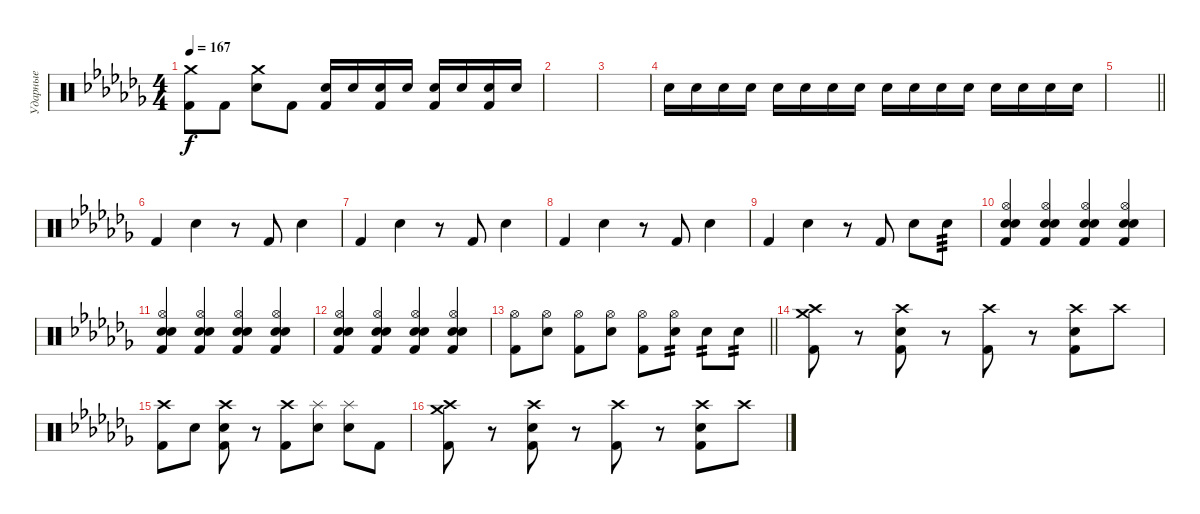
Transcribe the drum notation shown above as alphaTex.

\track ("Ударные" "Ударные") {instrument percussion}
\staff {score}
\articulation defaults
\ts (4 4)
\tempo 167
\clef neutral
\ks abminor
("Crash medium (hit)" "Kick (hit) 2").8{dy f} "Kick (hit) 2".8 ("Crash medium (hit)" "Electric Snare (hit)").8 "Kick (hit) 2".8 ("Electric Snare (hit)" "Kick (hit) 2").16 "Electric Snare (hit)".16 ("Electric Snare (hit)" "Kick (hit) 2").16 "Electric Snare (hit)".16 ("Electric Snare (hit)" "Kick (hit) 2").16 "Electric Snare (hit)".16 ("Electric Snare (hit)" "Kick (hit) 2").16 "Electric Snare (hit)".16 |
|
|
"Electric Snare (hit)".16 "Electric Snare (hit)".16 "Electric Snare (hit)".16 "Electric Snare (hit)".16 "Electric Snare (hit)".16 "Electric Snare (hit)".16 "Electric Snare (hit)".16 "Electric Snare (hit)".16 "Electric Snare (hit)".16 "Electric Snare (hit)".16 "Electric Snare (hit)".16 "Electric Snare (hit)".16 "Electric Snare (hit)".16 "Electric Snare (hit)".16 "Electric Snare (hit)".16 "Electric Snare (hit)".16 |
\barLineRight lightlight
|
"Kick (hit) 2".4 "Electric Snare (hit)".4 r.8 "Kick (hit) 2".8 "Electric Snare (hit)".4 |
"Kick (hit) 2".4 "Electric Snare (hit)".4 r.8 "Kick (hit) 2".8 "Electric Snare (hit)".4 |
"Kick (hit) 2".4 "Electric Snare (hit)".4 r.8 "Kick (hit) 2".8 "Electric Snare (hit)".4 |
"Kick (hit) 2".4 "Electric Snare (hit)".4 r.8 "Kick (hit) 2".8 "Electric Snare (hit)".8 "Electric Snare (hit)".8{tp 3} |
("Hi-Hat (open)" "Snare (hit) 2" "Snare (hit) 2" "Kick (hit) 2").4 ("Hi-Hat (open)" "Snare (hit) 2" "Snare (hit) 2" "Kick (hit) 2").4 ("Hi-Hat (open)" "Snare (hit) 2" "Snare (hit) 2" "Kick (hit) 2").4 ("Hi-Hat (open)" "Snare (hit) 2" "Snare (hit) 2" "Kick (hit) 2").4 |
("Hi-Hat (open)" "Snare (hit) 2" "Snare (hit) 2" "Kick (hit) 2").4 ("Hi-Hat (open)" "Snare (hit) 2" "Snare (hit) 2" "Kick (hit) 2").4 ("Hi-Hat (open)" "Snare (hit) 2" "Snare (hit) 2" "Kick (hit) 2").4 ("Hi-Hat (open)" "Snare (hit) 2" "Snare (hit) 2" "Kick (hit) 2").4 |
("Hi-Hat (open)" "Snare (hit) 2" "Snare (hit) 2" "Kick (hit) 2").4 ("Hi-Hat (open)" "Snare (hit) 2" "Snare (hit) 2" "Kick (hit) 2").4 ("Hi-Hat (open)" "Snare (hit) 2" "Snare (hit) 2" "Kick (hit) 2").4 ("Hi-Hat (open)" "Snare (hit) 2" "Snare (hit) 2" "Kick (hit) 2").4 |
\barLineRight lightlight
("Hi-Hat (open)" "Kick (hit) 2").8 ("Hi-Hat (open)" "Electric Snare (hit)").8 ("Hi-Hat (open)" "Kick (hit) 2").8 ("Hi-Hat (open)" "Electric Snare (hit)").8 ("Hi-Hat (open)" "Kick (hit) 2").8 ("Hi-Hat (open)" "Electric Snare (hit)").8{tp 2} "Electric Snare (hit)".8{tp 2} "Electric Snare (hit)".8{tp 2} |
("Crash high (hit)" "Crash medium (hit)" "Kick (hit) 2").8 r.8 ("Crash high (hit)" "Electric Snare (hit)" "Kick (hit) 2").8 r.8 ("Crash high (hit)" "Kick (hit) 2").8 r.8 ("Crash high (hit)" "Electric Snare (hit)" "Kick (hit) 2").8 "Crash high (hit)".8 |
("Crash high (hit)" "Kick (hit) 2").8 "Electric Snare (hit)".8 ("Crash high (hit)" "Electric Snare (hit)" "Kick (hit) 2").8 r.8 ("Crash high (hit)" "Kick (hit) 2").8 ("Splash (hit)" "Electric Snare (hit)").8 ("Splash (hit)" "Electric Snare (hit)").8 "Kick (hit) 2".8 |
("Crash high (hit)" "Crash medium (hit)" "Kick (hit) 2").8 r.8 ("Crash high (hit)" "Electric Snare (hit)" "Kick (hit) 2").8 r.8 ("Crash high (hit)" "Kick (hit) 2").8 r.8 ("Crash high (hit)" "Electric Snare (hit)" "Kick (hit) 2").8 "Crash high (hit)".8
